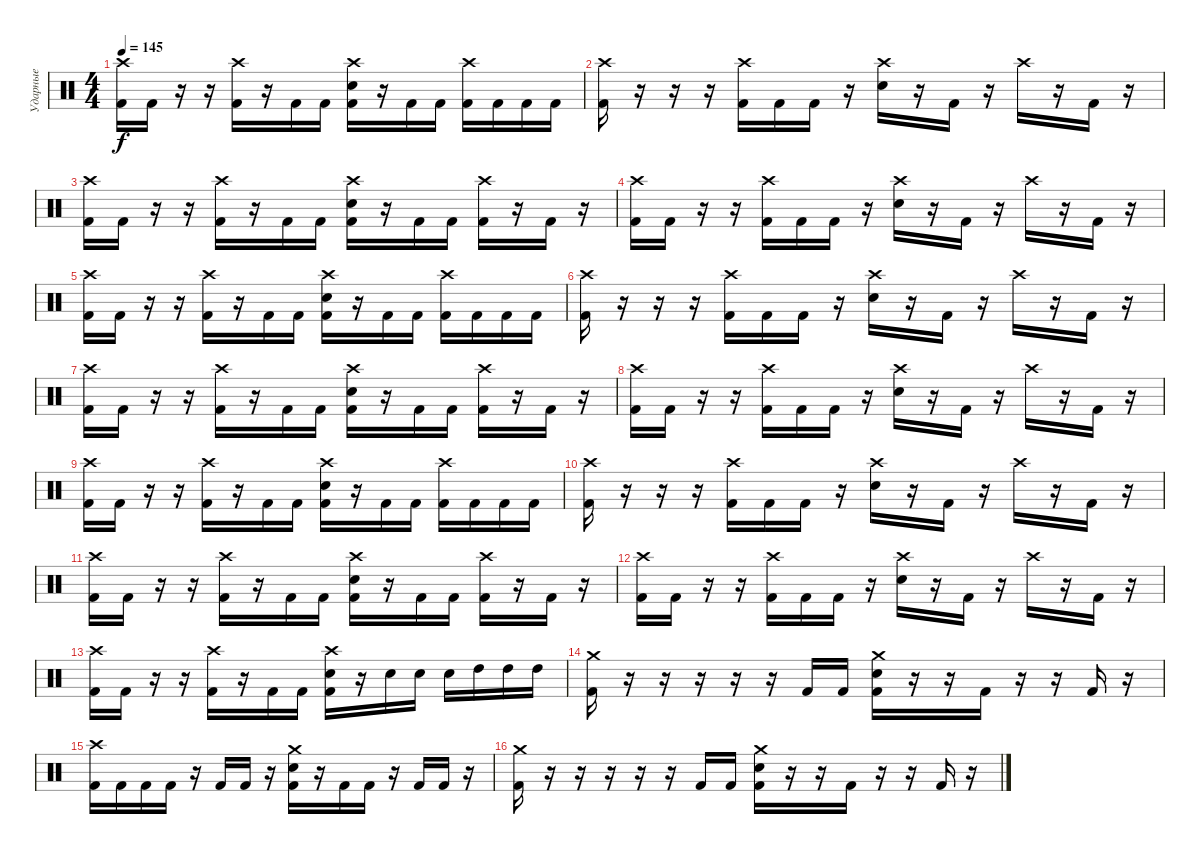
\track ("Ударные" "Ударные") {instrument percussion}
\staff {score}
\articulation defaults
\ts (4 4)
\tempo 145
\clef neutral
\ks c
("Crash high (hit)" "Kick (hit) 2").16{dy f} "Kick (hit) 2".16 r.16 r.16 ("Crash high (hit)" "Kick (hit) 2").16 r.16 "Kick (hit) 2".16 "Kick (hit) 2".16 ("Crash high (hit)" "Electric Snare (hit)" "Kick (hit) 2").16 r.16 "Kick (hit) 2".16 "Kick (hit) 2".16 ("Crash high (hit)" "Kick (hit) 2").16 "Kick (hit) 2".16 "Kick (hit) 2".16 "Kick (hit) 2".16 |
("Crash high (hit)" "Kick (hit) 2").16 r.16 r.16 r.16 ("Crash high (hit)" "Kick (hit) 2").16 "Kick (hit) 2".16 "Kick (hit) 2".16 r.16 ("Crash high (hit)" "Electric Snare (hit)").16 r.16 "Kick (hit) 2".16 r.16 "Crash high (hit)".16 r.16 "Kick (hit) 2".16 r.16 |
("Crash high (hit)" "Kick (hit) 2").16 "Kick (hit) 2".16 r.16 r.16 ("Crash high (hit)" "Kick (hit) 2").16 r.16 "Kick (hit) 2".16 "Kick (hit) 2".16 ("Crash high (hit)" "Electric Snare (hit)" "Kick (hit) 2").16 r.16 "Kick (hit) 2".16 "Kick (hit) 2".16 ("Crash high (hit)" "Kick (hit) 2").16 r.16 "Kick (hit) 2".16 r.16 |
("Crash high (hit)" "Kick (hit) 2").16 "Kick (hit) 2".16 r.16 r.16 ("Crash high (hit)" "Kick (hit) 2").16 "Kick (hit) 2".16 "Kick (hit) 2".16 r.16 ("Crash high (hit)" "Electric Snare (hit)").16 r.16 "Kick (hit) 2".16 r.16 "Crash high (hit)".16 r.16 "Kick (hit) 2".16 r.16 |
("Crash high (hit)" "Kick (hit) 2").16 "Kick (hit) 2".16 r.16 r.16 ("Crash high (hit)" "Kick (hit) 2").16 r.16 "Kick (hit) 2".16 "Kick (hit) 2".16 ("Crash high (hit)" "Electric Snare (hit)" "Kick (hit) 2").16 r.16 "Kick (hit) 2".16 "Kick (hit) 2".16 ("Crash high (hit)" "Kick (hit) 2").16 "Kick (hit) 2".16 "Kick (hit) 2".16 "Kick (hit) 2".16 |
("Crash high (hit)" "Kick (hit) 2").16 r.16 r.16 r.16 ("Crash high (hit)" "Kick (hit) 2").16 "Kick (hit) 2".16 "Kick (hit) 2".16 r.16 ("Crash high (hit)" "Electric Snare (hit)").16 r.16 "Kick (hit) 2".16 r.16 "Crash high (hit)".16 r.16 "Kick (hit) 2".16 r.16 |
("Crash high (hit)" "Kick (hit) 2").16 "Kick (hit) 2".16 r.16 r.16 ("Crash high (hit)" "Kick (hit) 2").16 r.16 "Kick (hit) 2".16 "Kick (hit) 2".16 ("Crash high (hit)" "Electric Snare (hit)" "Kick (hit) 2").16 r.16 "Kick (hit) 2".16 "Kick (hit) 2".16 ("Crash high (hit)" "Kick (hit) 2").16 r.16 "Kick (hit) 2".16 r.16 |
("Crash high (hit)" "Kick (hit) 2").16 "Kick (hit) 2".16 r.16 r.16 ("Crash high (hit)" "Kick (hit) 2").16 "Kick (hit) 2".16 "Kick (hit) 2".16 r.16 ("Crash high (hit)" "Electric Snare (hit)").16 r.16 "Kick (hit) 2".16 r.16 "Crash high (hit)".16 r.16 "Kick (hit) 2".16 r.16 |
("Crash high (hit)" "Kick (hit) 2").16 "Kick (hit) 2".16 r.16 r.16 ("Crash high (hit)" "Kick (hit) 2").16 r.16 "Kick (hit) 2".16 "Kick (hit) 2".16 ("Crash high (hit)" "Electric Snare (hit)" "Kick (hit) 2").16 r.16 "Kick (hit) 2".16 "Kick (hit) 2".16 ("Crash high (hit)" "Kick (hit) 2").16 "Kick (hit) 2".16 "Kick (hit) 2".16 "Kick (hit) 2".16 |
("Crash high (hit)" "Kick (hit) 2").16 r.16 r.16 r.16 ("Crash high (hit)" "Kick (hit) 2").16 "Kick (hit) 2".16 "Kick (hit) 2".16 r.16 ("Crash high (hit)" "Electric Snare (hit)").16 r.16 "Kick (hit) 2".16 r.16 "Crash high (hit)".16 r.16 "Kick (hit) 2".16 r.16 |
("Crash high (hit)" "Kick (hit) 2").16 "Kick (hit) 2".16 r.16 r.16 ("Crash high (hit)" "Kick (hit) 2").16 r.16 "Kick (hit) 2".16 "Kick (hit) 2".16 ("Crash high (hit)" "Electric Snare (hit)" "Kick (hit) 2").16 r.16 "Kick (hit) 2".16 "Kick (hit) 2".16 ("Crash high (hit)" "Kick (hit) 2").16 r.16 "Kick (hit) 2".16 r.16 |
("Crash high (hit)" "Kick (hit) 2").16 "Kick (hit) 2".16 r.16 r.16 ("Crash high (hit)" "Kick (hit) 2").16 "Kick (hit) 2".16 "Kick (hit) 2".16 r.16 ("Crash high (hit)" "Electric Snare (hit)").16 r.16 "Kick (hit) 2".16 r.16 "Crash high (hit)".16 r.16 "Kick (hit) 2".16 r.16 |
("Crash high (hit)" "Kick (hit) 2").16 "Kick (hit) 2".16 r.16 r.16 ("Crash high (hit)" "Kick (hit) 2").16 r.16 "Kick (hit) 2".16 "Kick (hit) 2".16 ("Crash high (hit)" "Electric Snare (hit)" "Kick (hit) 2").16 r.16 "Electric Snare (hit)".16 "Electric Snare (hit)".16 "Electric Snare (hit)".16 "High Tom (hit)".16 "High Tom (hit)".16 "High Tom (hit)".16 |
("Crash medium (hit)" "Kick (hit) 2").16 r.16 r.16 r.16 r.16 r.16 "Kick (hit) 2".16 "Kick (hit) 2".16 ("Crash medium (hit)" "Electric Snare (hit)" "Kick (hit) 2").16 r.16 r.16 "Kick (hit) 2".16 r.16 r.16 "Kick (hit) 2".16 r.16 |
("Crash high (hit)" "Kick (hit) 2").16 "Kick (hit) 2".16 "Kick (hit) 2".16 "Kick (hit) 2".16 r.16 "Kick (hit) 2".16 "Kick (hit) 2".16 r.16 ("Crash medium (hit)" "Electric Snare (hit)" "Kick (hit) 2").16 r.16 "Kick (hit) 2".16 "Kick (hit) 2".16 r.16 "Kick (hit) 2".16 "Kick (hit) 2".16 r.16 |
("Crash medium (hit)" "Kick (hit) 2").16 r.16 r.16 r.16 r.16 r.16 "Kick (hit) 2".16 "Kick (hit) 2".16 ("Crash medium (hit)" "Electric Snare (hit)" "Kick (hit) 2").16 r.16 r.16 "Kick (hit) 2".16 r.16 r.16 "Kick (hit) 2".16 r.16
